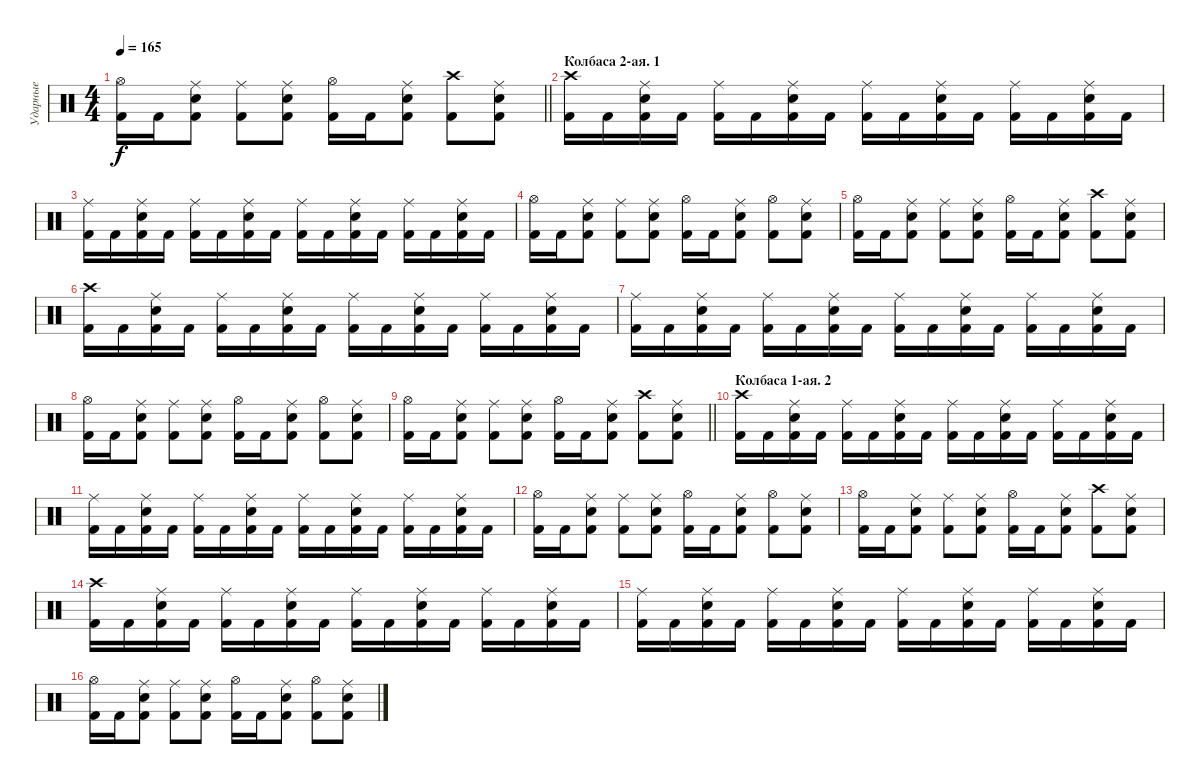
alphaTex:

\track ("Ударные" "Ударные") {instrument percussion}
\staff {score}
\articulation defaults
\ts (4 4)
\tempo 165
\clef neutral
\barLineRight lightlight
\ks c
("Hi-Hat (open)" "Kick (hit) 2").16{dy f} "Kick (hit) 2".16 ("Ride (middle)" "Electric Snare (hit)" "Kick (hit) 2").8 ("Ride (middle)" "Kick (hit) 2").8 ("Ride (middle)" "Electric Snare (hit)" "Kick (hit) 2").8 ("Hi-Hat (open)" "Kick (hit) 2").16 "Kick (hit) 2".16 ("Ride (middle)" "Electric Snare (hit)" "Kick (hit) 2").8 ("Crash high (hit)" "Kick (hit) 2").8 ("Ride (middle)" "Electric Snare (hit)" "Kick (hit) 2").8 |
\section ("" "Колбаса 2-ая. 1")
("Crash high (hit)" "Kick (hit) 2").16 "Kick (hit) 2".16 ("Ride (middle)" "Electric Snare (hit)" "Kick (hit) 2").16 "Kick (hit) 2".16 ("Ride (middle)" "Kick (hit) 2").16 "Kick (hit) 2".16 ("Ride (middle)" "Electric Snare (hit)" "Kick (hit) 2").16 "Kick (hit) 2".16 ("Ride (middle)" "Kick (hit) 2").16 "Kick (hit) 2".16 ("Ride (middle)" "Electric Snare (hit)" "Kick (hit) 2").16 "Kick (hit) 2".16 ("Ride (middle)" "Kick (hit) 2").16 "Kick (hit) 2".16 ("Ride (middle)" "Electric Snare (hit)" "Kick (hit) 2").16 "Kick (hit) 2".16 |
("Ride (middle)" "Kick (hit) 2").16 "Kick (hit) 2".16 ("Ride (middle)" "Electric Snare (hit)" "Kick (hit) 2").16 "Kick (hit) 2".16 ("Ride (middle)" "Kick (hit) 2").16 "Kick (hit) 2".16 ("Ride (middle)" "Electric Snare (hit)" "Kick (hit) 2").16 "Kick (hit) 2".16 ("Ride (middle)" "Kick (hit) 2").16 "Kick (hit) 2".16 ("Ride (middle)" "Electric Snare (hit)" "Kick (hit) 2").16 "Kick (hit) 2".16 ("Ride (middle)" "Kick (hit) 2").16 "Kick (hit) 2".16 ("Ride (middle)" "Electric Snare (hit)" "Kick (hit) 2").16 "Kick (hit) 2".16 |
("Hi-Hat (open)" "Kick (hit) 2").16 "Kick (hit) 2".16 ("Ride (middle)" "Electric Snare (hit)" "Kick (hit) 2").8 ("Ride (middle)" "Kick (hit) 2").8 ("Ride (middle)" "Electric Snare (hit)" "Kick (hit) 2").8 ("Hi-Hat (open)" "Kick (hit) 2").16 "Kick (hit) 2".16 ("Ride (middle)" "Electric Snare (hit)" "Kick (hit) 2").8 ("Hi-Hat (open)" "Kick (hit) 2").8 ("Ride (middle)" "Electric Snare (hit)" "Kick (hit) 2").8 |
("Hi-Hat (open)" "Kick (hit) 2").16 "Kick (hit) 2".16 ("Ride (middle)" "Electric Snare (hit)" "Kick (hit) 2").8 ("Ride (middle)" "Kick (hit) 2").8 ("Ride (middle)" "Electric Snare (hit)" "Kick (hit) 2").8 ("Hi-Hat (open)" "Kick (hit) 2").16 "Kick (hit) 2".16 ("Ride (middle)" "Electric Snare (hit)" "Kick (hit) 2").8 ("Crash high (hit)" "Kick (hit) 2").8 ("Ride (middle)" "Electric Snare (hit)" "Kick (hit) 2").8 |
("Crash high (hit)" "Kick (hit) 2").16 "Kick (hit) 2".16 ("Ride (middle)" "Electric Snare (hit)" "Kick (hit) 2").16 "Kick (hit) 2".16 ("Ride (middle)" "Kick (hit) 2").16 "Kick (hit) 2".16 ("Ride (middle)" "Electric Snare (hit)" "Kick (hit) 2").16 "Kick (hit) 2".16 ("Ride (middle)" "Kick (hit) 2").16 "Kick (hit) 2".16 ("Ride (middle)" "Electric Snare (hit)" "Kick (hit) 2").16 "Kick (hit) 2".16 ("Ride (middle)" "Kick (hit) 2").16 "Kick (hit) 2".16 ("Ride (middle)" "Electric Snare (hit)" "Kick (hit) 2").16 "Kick (hit) 2".16 |
("Ride (middle)" "Kick (hit) 2").16 "Kick (hit) 2".16 ("Ride (middle)" "Electric Snare (hit)" "Kick (hit) 2").16 "Kick (hit) 2".16 ("Ride (middle)" "Kick (hit) 2").16 "Kick (hit) 2".16 ("Ride (middle)" "Electric Snare (hit)" "Kick (hit) 2").16 "Kick (hit) 2".16 ("Ride (middle)" "Kick (hit) 2").16 "Kick (hit) 2".16 ("Ride (middle)" "Electric Snare (hit)" "Kick (hit) 2").16 "Kick (hit) 2".16 ("Ride (middle)" "Kick (hit) 2").16 "Kick (hit) 2".16 ("Ride (middle)" "Electric Snare (hit)" "Kick (hit) 2").16 "Kick (hit) 2".16 |
("Hi-Hat (open)" "Kick (hit) 2").16 "Kick (hit) 2".16 ("Ride (middle)" "Electric Snare (hit)" "Kick (hit) 2").8 ("Ride (middle)" "Kick (hit) 2").8 ("Ride (middle)" "Electric Snare (hit)" "Kick (hit) 2").8 ("Hi-Hat (open)" "Kick (hit) 2").16 "Kick (hit) 2".16 ("Ride (middle)" "Electric Snare (hit)" "Kick (hit) 2").8 ("Hi-Hat (open)" "Kick (hit) 2").8 ("Ride (middle)" "Electric Snare (hit)" "Kick (hit) 2").8 |
\barLineRight lightlight
("Hi-Hat (open)" "Kick (hit) 2").16 "Kick (hit) 2".16 ("Ride (middle)" "Electric Snare (hit)" "Kick (hit) 2").8 ("Ride (middle)" "Kick (hit) 2").8 ("Ride (middle)" "Electric Snare (hit)" "Kick (hit) 2").8 ("Hi-Hat (open)" "Kick (hit) 2").16 "Kick (hit) 2".16 ("Ride (middle)" "Electric Snare (hit)" "Kick (hit) 2").8 ("Crash high (hit)" "Kick (hit) 2").8 ("Ride (middle)" "Electric Snare (hit)" "Kick (hit) 2").8 |
\section ("" "Колбаса 1-ая. 2")
("Crash high (hit)" "Kick (hit) 2").16 "Kick (hit) 2".16 ("Ride (middle)" "Electric Snare (hit)" "Kick (hit) 2").16 "Kick (hit) 2".16 ("Ride (middle)" "Kick (hit) 2").16 "Kick (hit) 2".16 ("Ride (middle)" "Electric Snare (hit)" "Kick (hit) 2").16 "Kick (hit) 2".16 ("Ride (middle)" "Kick (hit) 2").16 "Kick (hit) 2".16 ("Ride (middle)" "Electric Snare (hit)" "Kick (hit) 2").16 "Kick (hit) 2".16 ("Ride (middle)" "Kick (hit) 2").16 "Kick (hit) 2".16 ("Ride (middle)" "Electric Snare (hit)" "Kick (hit) 2").16 "Kick (hit) 2".16 |
("Ride (middle)" "Kick (hit) 2").16 "Kick (hit) 2".16 ("Ride (middle)" "Electric Snare (hit)" "Kick (hit) 2").16 "Kick (hit) 2".16 ("Ride (middle)" "Kick (hit) 2").16 "Kick (hit) 2".16 ("Ride (middle)" "Electric Snare (hit)" "Kick (hit) 2").16 "Kick (hit) 2".16 ("Ride (middle)" "Kick (hit) 2").16 "Kick (hit) 2".16 ("Ride (middle)" "Electric Snare (hit)" "Kick (hit) 2").16 "Kick (hit) 2".16 ("Ride (middle)" "Kick (hit) 2").16 "Kick (hit) 2".16 ("Ride (middle)" "Electric Snare (hit)" "Kick (hit) 2").16 "Kick (hit) 2".16 |
("Hi-Hat (open)" "Kick (hit) 2").16 "Kick (hit) 2".16 ("Ride (middle)" "Electric Snare (hit)" "Kick (hit) 2").8 ("Ride (middle)" "Kick (hit) 2").8 ("Ride (middle)" "Electric Snare (hit)" "Kick (hit) 2").8 ("Hi-Hat (open)" "Kick (hit) 2").16 "Kick (hit) 2".16 ("Ride (middle)" "Electric Snare (hit)" "Kick (hit) 2").8 ("Hi-Hat (open)" "Kick (hit) 2").8 ("Ride (middle)" "Electric Snare (hit)" "Kick (hit) 2").8 |
("Hi-Hat (open)" "Kick (hit) 2").16 "Kick (hit) 2".16 ("Ride (middle)" "Electric Snare (hit)" "Kick (hit) 2").8 ("Ride (middle)" "Kick (hit) 2").8 ("Ride (middle)" "Electric Snare (hit)" "Kick (hit) 2").8 ("Hi-Hat (open)" "Kick (hit) 2").16 "Kick (hit) 2".16 ("Ride (middle)" "Electric Snare (hit)" "Kick (hit) 2").8 ("Crash high (hit)" "Kick (hit) 2").8 ("Ride (middle)" "Electric Snare (hit)" "Kick (hit) 2").8 |
("Crash high (hit)" "Kick (hit) 2").16 "Kick (hit) 2".16 ("Ride (middle)" "Electric Snare (hit)" "Kick (hit) 2").16 "Kick (hit) 2".16 ("Ride (middle)" "Kick (hit) 2").16 "Kick (hit) 2".16 ("Ride (middle)" "Electric Snare (hit)" "Kick (hit) 2").16 "Kick (hit) 2".16 ("Ride (middle)" "Kick (hit) 2").16 "Kick (hit) 2".16 ("Ride (middle)" "Electric Snare (hit)" "Kick (hit) 2").16 "Kick (hit) 2".16 ("Ride (middle)" "Kick (hit) 2").16 "Kick (hit) 2".16 ("Ride (middle)" "Electric Snare (hit)" "Kick (hit) 2").16 "Kick (hit) 2".16 |
("Ride (middle)" "Kick (hit) 2").16 "Kick (hit) 2".16 ("Ride (middle)" "Electric Snare (hit)" "Kick (hit) 2").16 "Kick (hit) 2".16 ("Ride (middle)" "Kick (hit) 2").16 "Kick (hit) 2".16 ("Ride (middle)" "Electric Snare (hit)" "Kick (hit) 2").16 "Kick (hit) 2".16 ("Ride (middle)" "Kick (hit) 2").16 "Kick (hit) 2".16 ("Ride (middle)" "Electric Snare (hit)" "Kick (hit) 2").16 "Kick (hit) 2".16 ("Ride (middle)" "Kick (hit) 2").16 "Kick (hit) 2".16 ("Ride (middle)" "Electric Snare (hit)" "Kick (hit) 2").16 "Kick (hit) 2".16 |
("Hi-Hat (open)" "Kick (hit) 2").16 "Kick (hit) 2".16 ("Ride (middle)" "Electric Snare (hit)" "Kick (hit) 2").8 ("Ride (middle)" "Kick (hit) 2").8 ("Ride (middle)" "Electric Snare (hit)" "Kick (hit) 2").8 ("Hi-Hat (open)" "Kick (hit) 2").16 "Kick (hit) 2".16 ("Ride (middle)" "Electric Snare (hit)" "Kick (hit) 2").8 ("Hi-Hat (open)" "Kick (hit) 2").8 ("Ride (middle)" "Electric Snare (hit)" "Kick (hit) 2").8
